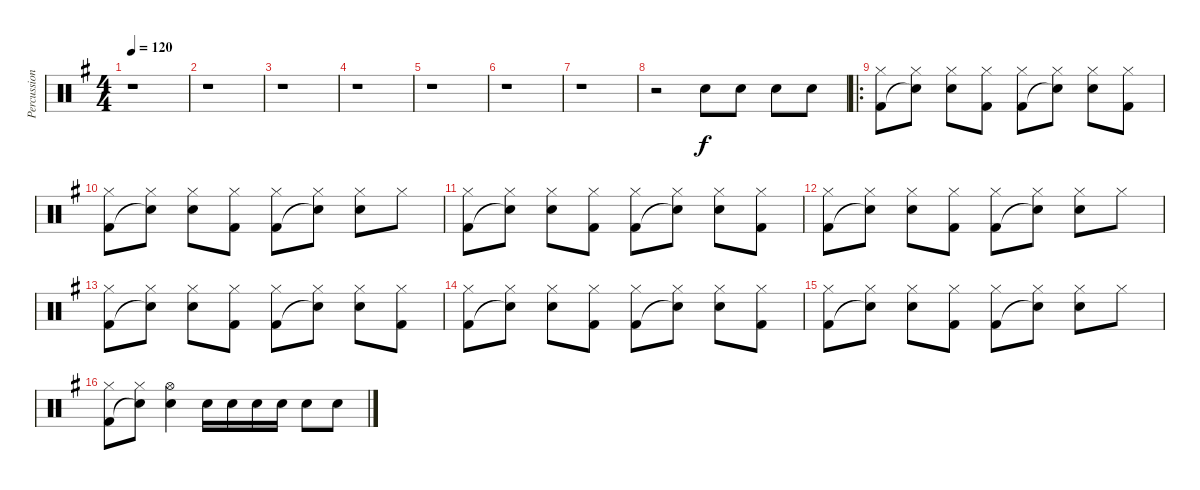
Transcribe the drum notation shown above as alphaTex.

\track ("Percussion" "Percussion") {instrument percussion}
\staff {score}
\articulation defaults
\ts (4 4)
\tempo 120
\clef neutral
\ks g
r.1{dy f} |
r.1 |
r.1 |
r.1 |
r.1 |
r.1 |
r.1 |
r.2 "Snare (hit) 2".8 "Snare (hit) 2".8 "Snare (hit) 2".8 "Snare (hit) 2".8 |
\ro
("Hi-Hat (closed)" "Kick (hit) 2").8 ("Hi-Hat (closed)" "Snare (hit)"{t}).8 ("Hi-Hat (closed)" "Snare (hit) 2").8 ("Hi-Hat (closed)" "Kick (hit) 2").8 ("Hi-Hat (closed)" "Kick (hit) 2").8 ("Hi-Hat (closed)" "Snare (hit)"{t}).8 ("Hi-Hat (closed)" "Snare (hit) 2").8 ("Hi-Hat (closed)" "Kick (hit) 2").8 |
("Hi-Hat (closed)" "Kick (hit) 2").8 ("Hi-Hat (closed)" "Snare (hit)"{t}).8 ("Hi-Hat (closed)" "Snare (hit) 2").8 ("Hi-Hat (closed)" "Kick (hit) 2").8 ("Hi-Hat (closed)" "Kick (hit) 2").8 ("Hi-Hat (closed)" "Snare (hit)"{t}).8 ("Hi-Hat (closed)" "Snare (hit) 2").8 "Hi-Hat (closed)".8 |
("Hi-Hat (closed)" "Kick (hit) 2").8 ("Hi-Hat (closed)" "Snare (hit)"{t}).8 ("Hi-Hat (closed)" "Snare (hit) 2").8 ("Hi-Hat (closed)" "Kick (hit) 2").8 ("Hi-Hat (closed)" "Kick (hit) 2").8 ("Hi-Hat (closed)" "Snare (hit)"{t}).8 ("Hi-Hat (closed)" "Snare (hit) 2").8 ("Hi-Hat (closed)" "Kick (hit) 2").8 |
("Hi-Hat (closed)" "Kick (hit) 2").8 ("Hi-Hat (closed)" "Snare (hit)"{t}).8 ("Hi-Hat (closed)" "Snare (hit) 2").8 ("Hi-Hat (closed)" "Kick (hit) 2").8 ("Hi-Hat (closed)" "Kick (hit) 2").8 ("Hi-Hat (closed)" "Snare (hit)"{t}).8 ("Hi-Hat (closed)" "Snare (hit) 2").8 "Hi-Hat (closed)".8 |
("Hi-Hat (closed)" "Kick (hit) 2").8 ("Hi-Hat (closed)" "Snare (hit)"{t}).8 ("Hi-Hat (closed)" "Snare (hit) 2").8 ("Hi-Hat (closed)" "Kick (hit) 2").8 ("Hi-Hat (closed)" "Kick (hit) 2").8 ("Hi-Hat (closed)" "Snare (hit)"{t}).8 ("Hi-Hat (closed)" "Snare (hit) 2").8 ("Hi-Hat (closed)" "Kick (hit) 2").8 |
("Hi-Hat (closed)" "Kick (hit) 2").8 ("Hi-Hat (closed)" "Snare (hit)"{t}).8 ("Hi-Hat (closed)" "Snare (hit) 2").8 ("Hi-Hat (closed)" "Kick (hit) 2").8 ("Hi-Hat (closed)" "Kick (hit) 2").8 ("Hi-Hat (closed)" "Snare (hit)"{t}).8 ("Hi-Hat (closed)" "Snare (hit) 2").8 ("Hi-Hat (closed)" "Kick (hit) 2").8 |
("Hi-Hat (closed)" "Kick (hit) 2").8 ("Hi-Hat (closed)" "Snare (hit)"{t}).8 ("Hi-Hat (closed)" "Snare (hit) 2").8 ("Hi-Hat (closed)" "Kick (hit) 2").8 ("Hi-Hat (closed)" "Kick (hit) 2").8 ("Hi-Hat (closed)" "Snare (hit)"{t}).8 ("Hi-Hat (closed)" "Snare (hit) 2").8 "Hi-Hat (closed)".8 |
("Hi-Hat (closed)" "Kick (hit) 2").8 ("Hi-Hat (closed)" "Snare (hit)"{t}).8 ("Hi-Hat (open)" "Snare (hit) 2").4 "Snare (hit) 2".16 "Snare (hit) 2".16 "Snare (hit) 2".16 "Snare (hit) 2".16 "Snare (hit) 2".8 "Snare (hit) 2".8
